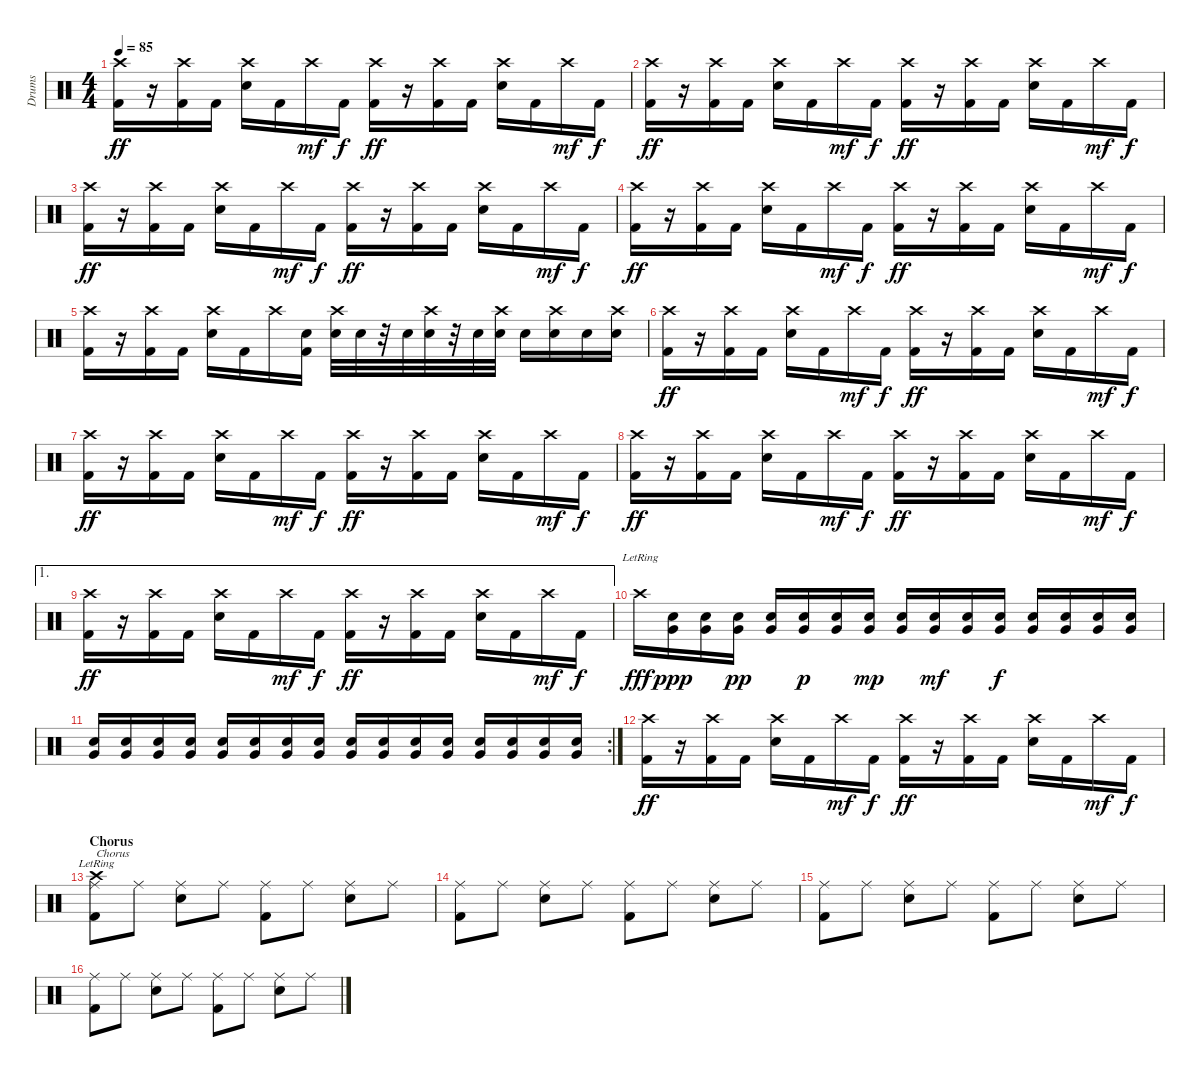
\track ("Drums" "Drums") {instrument percussion}
\staff {score}
\articulation defaults
\ts (4 4)
\tempo 85
\clef neutral
\ks c
("Crash high (hit)" "Kick (hit) 2").16{dy ff} r.16 ("Crash high (hit)" "Kick (hit) 2").16 "Kick (hit) 2".16 ("Crash high (hit)" "Snare (hit) 2").16 "Kick (hit) 2".16 "Crash high (hit)".16{dy mf} "Kick (hit) 2".16{dy f} ("Crash high (hit)" "Kick (hit) 2").16{dy ff} r.16 ("Crash high (hit)" "Kick (hit) 2").16 "Kick (hit) 2".16 ("Crash high (hit)" "Snare (hit) 2").16 "Kick (hit) 2".16 "Crash high (hit)".16{dy mf} "Kick (hit) 2".16{dy f} |
("Crash high (hit)" "Kick (hit) 2").16{dy ff} r.16 ("Crash high (hit)" "Kick (hit) 2").16 "Kick (hit) 2".16 ("Crash high (hit)" "Snare (hit) 2").16 "Kick (hit) 2".16 "Crash high (hit)".16{dy mf} "Kick (hit) 2".16{dy f} ("Crash high (hit)" "Kick (hit) 2").16{dy ff} r.16 ("Crash high (hit)" "Kick (hit) 2").16 "Kick (hit) 2".16 ("Crash high (hit)" "Snare (hit) 2").16 "Kick (hit) 2".16 "Crash high (hit)".16{dy mf} "Kick (hit) 2".16{dy f} |
("Crash high (hit)" "Kick (hit) 2").16{dy ff} r.16 ("Crash high (hit)" "Kick (hit) 2").16 "Kick (hit) 2".16 ("Crash high (hit)" "Snare (hit) 2").16 "Kick (hit) 2".16 "Crash high (hit)".16{dy mf} "Kick (hit) 2".16{dy f} ("Crash high (hit)" "Kick (hit) 2").16{dy ff} r.16 ("Crash high (hit)" "Kick (hit) 2").16 "Kick (hit) 2".16 ("Crash high (hit)" "Snare (hit) 2").16 "Kick (hit) 2".16 "Crash high (hit)".16{dy mf} "Kick (hit) 2".16{dy f} |
("Crash high (hit)" "Kick (hit) 2").16{dy ff} r.16 ("Crash high (hit)" "Kick (hit) 2").16 "Kick (hit) 2".16 ("Crash high (hit)" "Snare (hit) 2").16 "Kick (hit) 2".16 "Crash high (hit)".16{dy mf} "Kick (hit) 2".16{dy f} ("Crash high (hit)" "Kick (hit) 2").16{dy ff} r.16 ("Crash high (hit)" "Kick (hit) 2").16 "Kick (hit) 2".16 ("Crash high (hit)" "Snare (hit) 2").16 "Kick (hit) 2".16 "Crash high (hit)".16{dy mf} "Kick (hit) 2".16{dy f} |
("Crash high (hit)" "Kick (hit) 2").16 r.16 ("Crash high (hit)" "Kick (hit) 2").16 "Kick (hit) 2".16 ("Crash high (hit)" "Snare (hit) 2").16 "Kick (hit) 2".16 "Crash high (hit)".16 ("Snare (hit) 2" "Kick (hit) 2").16 ("Crash high (hit)" "Snare (hit) 2").32 "Snare (hit) 2".32 r.32 "Snare (hit) 2".32 ("Crash high (hit)" "Snare (hit) 2").32 r.32 "Snare (hit) 2".32 ("Crash high (hit)" "Snare (hit) 2").32 "Snare (hit) 2".16 ("Crash high (hit)" "Snare (hit) 2").16 "Snare (hit) 2".16 ("Crash high (hit)" "Snare (hit) 2").16 |
("Crash high (hit)" "Kick (hit) 2").16{dy ff} r.16 ("Crash high (hit)" "Kick (hit) 2").16 "Kick (hit) 2".16 ("Crash high (hit)" "Snare (hit) 2").16 "Kick (hit) 2".16 "Crash high (hit)".16{dy mf} "Kick (hit) 2".16{dy f} ("Crash high (hit)" "Kick (hit) 2").16{dy ff} r.16 ("Crash high (hit)" "Kick (hit) 2").16 "Kick (hit) 2".16 ("Crash high (hit)" "Snare (hit) 2").16 "Kick (hit) 2".16 "Crash high (hit)".16{dy mf} "Kick (hit) 2".16{dy f} |
("Crash high (hit)" "Kick (hit) 2").16{dy ff} r.16 ("Crash high (hit)" "Kick (hit) 2").16 "Kick (hit) 2".16 ("Crash high (hit)" "Snare (hit) 2").16 "Kick (hit) 2".16 "Crash high (hit)".16{dy mf} "Kick (hit) 2".16{dy f} ("Crash high (hit)" "Kick (hit) 2").16{dy ff} r.16 ("Crash high (hit)" "Kick (hit) 2").16 "Kick (hit) 2".16 ("Crash high (hit)" "Snare (hit) 2").16 "Kick (hit) 2".16 "Crash high (hit)".16{dy mf} "Kick (hit) 2".16{dy f} |
("Crash high (hit)" "Kick (hit) 2").16{dy ff} r.16 ("Crash high (hit)" "Kick (hit) 2").16 "Kick (hit) 2".16 ("Crash high (hit)" "Snare (hit) 2").16 "Kick (hit) 2".16 "Crash high (hit)".16{dy mf} "Kick (hit) 2".16{dy f} ("Crash high (hit)" "Kick (hit) 2").16{dy ff} r.16 ("Crash high (hit)" "Kick (hit) 2").16 "Kick (hit) 2".16 ("Crash high (hit)" "Snare (hit) 2").16 "Kick (hit) 2".16 "Crash high (hit)".16{dy mf} "Kick (hit) 2".16{dy f} |
\ae 1
("Crash high (hit)" "Kick (hit) 2").16{dy ff} r.16 ("Crash high (hit)" "Kick (hit) 2").16 "Kick (hit) 2".16 ("Crash high (hit)" "Snare (hit) 2").16 "Kick (hit) 2".16 "Crash high (hit)".16{dy mf} "Kick (hit) 2".16{dy f} ("Crash high (hit)" "Kick (hit) 2").16{dy ff} r.16 ("Crash high (hit)" "Kick (hit) 2").16 "Kick (hit) 2".16 ("Crash high (hit)" "Snare (hit) 2").16 "Kick (hit) 2".16 "Crash high (hit)".16{dy mf} "Kick (hit) 2".16{dy f} |
"Crash high (hit)"{lr}.16{dy fff} ("Very Low Tom (hit)" "Snare (hit) 2").16{dy ppp} ("Very Low Tom (hit)" "Snare (hit) 2").16 ("Very Low Tom (hit)" "Snare (hit) 2").16{dy pp} ("Very Low Tom (hit)" "Snare (hit) 2").16 ("Very Low Tom (hit)" "Snare (hit) 2").16{dy p} ("Very Low Tom (hit)" "Snare (hit) 2").16 ("Very Low Tom (hit)" "Snare (hit) 2").16{dy mp} ("Very Low Tom (hit)" "Snare (hit) 2").16 ("Very Low Tom (hit)" "Snare (hit) 2").16{dy mf} ("Very Low Tom (hit)" "Snare (hit) 2").16 ("Very Low Tom (hit)" "Snare (hit) 2").16{dy f} ("Very Low Tom (hit)" "Snare (hit) 2").16 ("Very Low Tom (hit)" "Snare (hit) 2").16 ("Very Low Tom (hit)" "Snare (hit) 2").16 ("Very Low Tom (hit)" "Snare (hit) 2").16 |
\rc 2
("Very Low Tom (hit)" "Snare (hit) 2").16 ("Very Low Tom (hit)" "Snare (hit) 2").16 ("Very Low Tom (hit)" "Snare (hit) 2").16 ("Very Low Tom (hit)" "Snare (hit) 2").16 ("Very Low Tom (hit)" "Snare (hit) 2").16 ("Very Low Tom (hit)" "Snare (hit) 2").16 ("Very Low Tom (hit)" "Snare (hit) 2").16 ("Very Low Tom (hit)" "Snare (hit) 2").16 ("Very Low Tom (hit)" "Snare (hit) 2").16 ("Very Low Tom (hit)" "Snare (hit) 2").16 ("Very Low Tom (hit)" "Snare (hit) 2").16 ("Very Low Tom (hit)" "Snare (hit) 2").16 ("Very Low Tom (hit)" "Snare (hit) 2").16 ("Very Low Tom (hit)" "Snare (hit) 2").16 ("Very Low Tom (hit)" "Snare (hit) 2").16 ("Very Low Tom (hit)" "Snare (hit) 2").16 |
("Crash high (hit)" "Kick (hit) 2").16{dy ff} r.16 ("Crash high (hit)" "Kick (hit) 2").16 "Kick (hit) 2".16 ("Crash high (hit)" "Snare (hit) 2").16 "Kick (hit) 2".16 "Crash high (hit)".16{dy mf} "Kick (hit) 2".16{dy f} ("Crash high (hit)" "Kick (hit) 2").16{dy ff} r.16 ("Crash high (hit)" "Kick (hit) 2").16 "Kick (hit) 2".16 ("Crash high (hit)" "Snare (hit) 2").16 "Kick (hit) 2".16 "Crash high (hit)".16{dy mf} "Kick (hit) 2".16{dy f} |
\section ("" "Chorus")
("Ride (middle)" "Crash high (hit)"{lr} "Kick (hit) 2").8{txt "Chorus"} "Ride (middle)".8 ("Ride (middle)" "Snare (hit) 2").8 "Ride (middle)".8 ("Ride (middle)" "Kick (hit) 2").8 "Ride (middle)".8 ("Ride (middle)" "Snare (hit) 2").8 "Ride (middle)".8 |
("Ride (middle)" "Kick (hit) 2").8 "Ride (middle)".8 ("Ride (middle)" "Snare (hit) 2").8 "Ride (middle)".8 ("Ride (middle)" "Kick (hit) 2").8 "Ride (middle)".8 ("Ride (middle)" "Snare (hit) 2").8 "Ride (middle)".8 |
("Ride (middle)" "Kick (hit) 2").8 "Ride (middle)".8 ("Ride (middle)" "Snare (hit) 2").8 "Ride (middle)".8 ("Ride (middle)" "Kick (hit) 2").8 "Ride (middle)".8 ("Ride (middle)" "Snare (hit) 2").8 "Ride (middle)".8 |
("Ride (middle)" "Kick (hit) 2").8 "Ride (middle)".8 ("Ride (middle)" "Snare (hit) 2").8 "Ride (middle)".8 ("Ride (middle)" "Kick (hit) 2").8 "Ride (middle)".8 ("Ride (middle)" "Snare (hit) 2").8 "Ride (middle)".8
